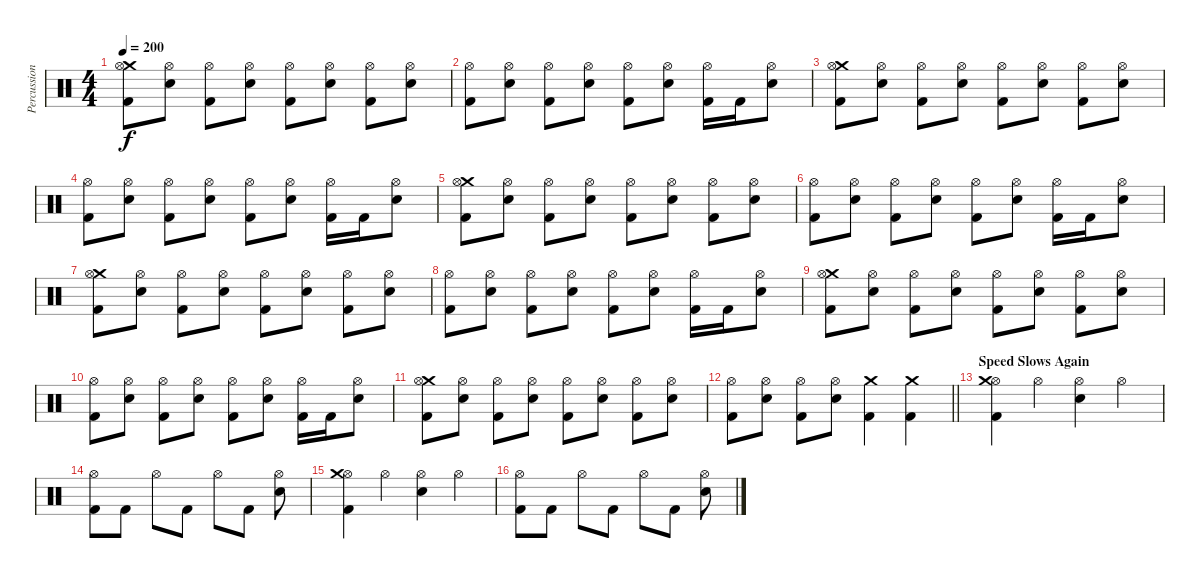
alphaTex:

\track ("Percussion" "Percussion") {instrument percussion}
\staff {score}
\articulation defaults
\ts (4 4)
\tempo 200
\clef neutral
\ks c
("Kick (hit) 2" "Crash medium (hit)" "Hi-Hat (open)").8{dy f} ("Electric Snare (hit)" "Hi-Hat (open)").8 ("Kick (hit) 2" "Hi-Hat (open)").8 ("Electric Snare (hit)" "Hi-Hat (open)").8 ("Kick (hit) 2" "Hi-Hat (open)").8 ("Electric Snare (hit)" "Hi-Hat (open)").8 ("Kick (hit) 2" "Hi-Hat (open)").8 ("Electric Snare (hit)" "Hi-Hat (open)").8 |
("Kick (hit) 2" "Hi-Hat (open)").8 ("Electric Snare (hit)" "Hi-Hat (open)").8 ("Kick (hit) 2" "Hi-Hat (open)").8 ("Electric Snare (hit)" "Hi-Hat (open)").8 ("Kick (hit) 2" "Hi-Hat (open)").8 ("Electric Snare (hit)" "Hi-Hat (open)").8 ("Kick (hit) 2" "Hi-Hat (open)").16 "Kick (hit) 2".16 ("Electric Snare (hit)" "Hi-Hat (open)").8 |
("Kick (hit) 2" "Crash medium (hit)" "Hi-Hat (open)").8 ("Electric Snare (hit)" "Hi-Hat (open)").8 ("Kick (hit) 2" "Hi-Hat (open)").8 ("Electric Snare (hit)" "Hi-Hat (open)").8 ("Kick (hit) 2" "Hi-Hat (open)").8 ("Electric Snare (hit)" "Hi-Hat (open)").8 ("Kick (hit) 2" "Hi-Hat (open)").8 ("Electric Snare (hit)" "Hi-Hat (open)").8 |
("Kick (hit) 2" "Hi-Hat (open)").8 ("Electric Snare (hit)" "Hi-Hat (open)").8 ("Kick (hit) 2" "Hi-Hat (open)").8 ("Electric Snare (hit)" "Hi-Hat (open)").8 ("Kick (hit) 2" "Hi-Hat (open)").8 ("Electric Snare (hit)" "Hi-Hat (open)").8 ("Kick (hit) 2" "Hi-Hat (open)").16 "Kick (hit) 2".16 ("Electric Snare (hit)" "Hi-Hat (open)").8 |
("Kick (hit) 2" "Crash medium (hit)" "Hi-Hat (open)").8 ("Electric Snare (hit)" "Hi-Hat (open)").8 ("Kick (hit) 2" "Hi-Hat (open)").8 ("Electric Snare (hit)" "Hi-Hat (open)").8 ("Kick (hit) 2" "Hi-Hat (open)").8 ("Electric Snare (hit)" "Hi-Hat (open)").8 ("Kick (hit) 2" "Hi-Hat (open)").8 ("Electric Snare (hit)" "Hi-Hat (open)").8 |
("Kick (hit) 2" "Hi-Hat (open)").8 ("Electric Snare (hit)" "Hi-Hat (open)").8 ("Kick (hit) 2" "Hi-Hat (open)").8 ("Electric Snare (hit)" "Hi-Hat (open)").8 ("Kick (hit) 2" "Hi-Hat (open)").8 ("Electric Snare (hit)" "Hi-Hat (open)").8 ("Kick (hit) 2" "Hi-Hat (open)").16 "Kick (hit) 2".16 ("Electric Snare (hit)" "Hi-Hat (open)").8 |
("Kick (hit) 2" "Crash medium (hit)" "Hi-Hat (open)").8 ("Electric Snare (hit)" "Hi-Hat (open)").8 ("Kick (hit) 2" "Hi-Hat (open)").8 ("Electric Snare (hit)" "Hi-Hat (open)").8 ("Kick (hit) 2" "Hi-Hat (open)").8 ("Electric Snare (hit)" "Hi-Hat (open)").8 ("Kick (hit) 2" "Hi-Hat (open)").8 ("Electric Snare (hit)" "Hi-Hat (open)").8 |
("Kick (hit) 2" "Hi-Hat (open)").8 ("Electric Snare (hit)" "Hi-Hat (open)").8 ("Kick (hit) 2" "Hi-Hat (open)").8 ("Electric Snare (hit)" "Hi-Hat (open)").8 ("Kick (hit) 2" "Hi-Hat (open)").8 ("Electric Snare (hit)" "Hi-Hat (open)").8 ("Kick (hit) 2" "Hi-Hat (open)").16 "Kick (hit) 2".16 ("Electric Snare (hit)" "Hi-Hat (open)").8 |
("Kick (hit) 2" "Crash medium (hit)" "Hi-Hat (open)").8 ("Electric Snare (hit)" "Hi-Hat (open)").8 ("Kick (hit) 2" "Hi-Hat (open)").8 ("Electric Snare (hit)" "Hi-Hat (open)").8 ("Kick (hit) 2" "Hi-Hat (open)").8 ("Electric Snare (hit)" "Hi-Hat (open)").8 ("Kick (hit) 2" "Hi-Hat (open)").8 ("Electric Snare (hit)" "Hi-Hat (open)").8 |
("Kick (hit) 2" "Hi-Hat (open)").8 ("Electric Snare (hit)" "Hi-Hat (open)").8 ("Kick (hit) 2" "Hi-Hat (open)").8 ("Electric Snare (hit)" "Hi-Hat (open)").8 ("Kick (hit) 2" "Hi-Hat (open)").8 ("Electric Snare (hit)" "Hi-Hat (open)").8 ("Kick (hit) 2" "Hi-Hat (open)").16 "Kick (hit) 2".16 ("Electric Snare (hit)" "Hi-Hat (open)").8 |
("Kick (hit) 2" "Crash medium (hit)" "Hi-Hat (open)").8 ("Electric Snare (hit)" "Hi-Hat (open)").8 ("Kick (hit) 2" "Hi-Hat (open)").8 ("Electric Snare (hit)" "Hi-Hat (open)").8 ("Kick (hit) 2" "Hi-Hat (open)").8 ("Electric Snare (hit)" "Hi-Hat (open)").8 ("Kick (hit) 2" "Hi-Hat (open)").8 ("Electric Snare (hit)" "Hi-Hat (open)").8 |
\barLineRight lightlight
("Kick (hit) 2" "Hi-Hat (open)").8 ("Electric Snare (hit)" "Hi-Hat (open)").8 ("Kick (hit) 2" "Hi-Hat (open)").8 ("Electric Snare (hit)" "Hi-Hat (open)").8 ("Kick (hit) 2" "Crash medium (hit)").4 ("Kick (hit) 2" "Crash medium (hit)").4 |
\section ("" "Speed Slows Again")
("Kick (hit) 2" "Hi-Hat (open)" "Crash medium (hit)").4 "Hi-Hat (open)".4 ("Electric Snare (hit)" "Hi-Hat (open)").4 "Hi-Hat (open)".4 |
("Kick (hit) 2" "Hi-Hat (open)").8 "Kick (hit) 2".8 "Hi-Hat (open)".8 "Kick (hit) 2".8 "Hi-Hat (open)".8 "Kick (hit) 2".8 ("Electric Snare (hit)" "Hi-Hat (open)").8 |
("Kick (hit) 2" "Hi-Hat (open)" "Crash medium (hit)").4 "Hi-Hat (open)".4 ("Electric Snare (hit)" "Hi-Hat (open)").4 "Hi-Hat (open)".4 |
("Kick (hit) 2" "Hi-Hat (open)").8 "Kick (hit) 2".8 "Hi-Hat (open)".8 "Kick (hit) 2".8 "Hi-Hat (open)".8 "Kick (hit) 2".8 ("Electric Snare (hit)" "Hi-Hat (open)").8
